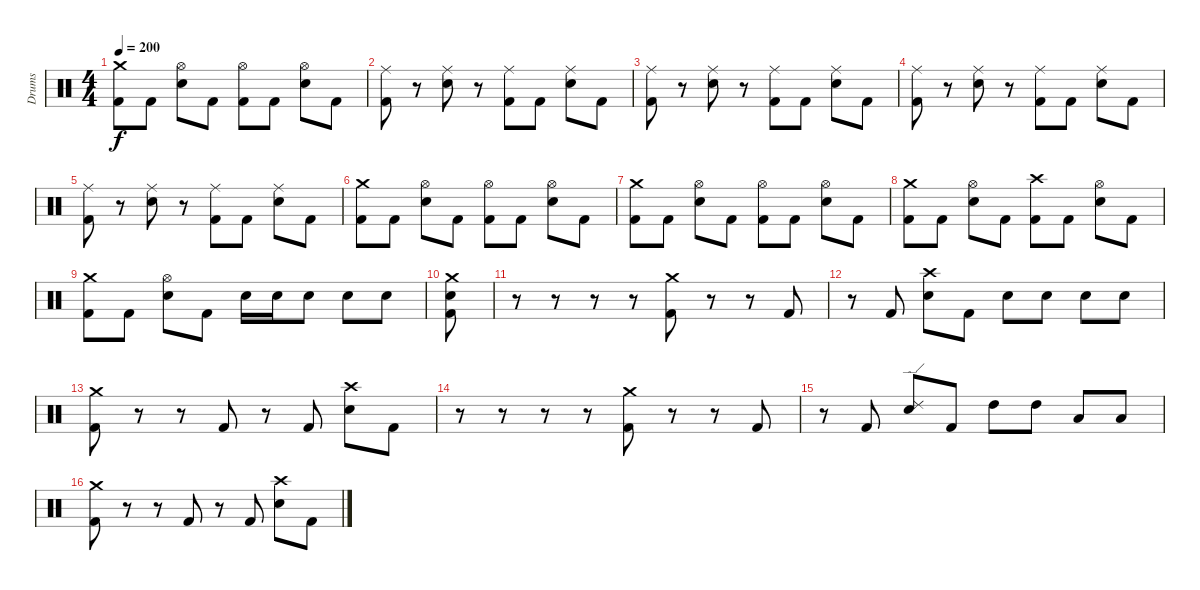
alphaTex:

\track ("Drums" "Drums") {instrument percussion}
\staff {score}
\articulation defaults
\ts (4 4)
\tempo 200
\clef neutral
\ks c
("Crash medium (hit)" "Kick (hit) 2").8{dy f} "Kick (hit) 2".8 ("Hi-Hat (open)" "Electric Snare (hit)").8 "Kick (hit) 2".8 ("Hi-Hat (open)" "Kick (hit) 2").8 "Kick (hit) 2".8 ("Hi-Hat (open)" "Electric Snare (hit)").8 "Kick (hit) 2".8 |
("Ride (middle)" "Kick (hit) 2").8 r.8 ("Ride (middle)" "Electric Snare (hit)").8 r.8 ("Ride (middle)" "Kick (hit) 2").8 "Kick (hit) 2".8 ("Ride (middle)" "Electric Snare (hit)").8 "Kick (hit) 2".8 |
("Ride (middle)" "Kick (hit) 2").8 r.8 ("Ride (middle)" "Electric Snare (hit)").8 r.8 ("Ride (middle)" "Kick (hit) 2").8 "Kick (hit) 2".8 ("Ride (middle)" "Electric Snare (hit)").8 "Kick (hit) 2".8 |
("Ride (middle)" "Kick (hit) 2").8 r.8 ("Ride (middle)" "Electric Snare (hit)").8 r.8 ("Ride (middle)" "Kick (hit) 2").8 "Kick (hit) 2".8 ("Ride (middle)" "Electric Snare (hit)").8 "Kick (hit) 2".8 |
("Ride (middle)" "Kick (hit) 2").8 r.8 ("Ride (middle)" "Electric Snare (hit)").8 r.8 ("Ride (middle)" "Kick (hit) 2").8 "Kick (hit) 2".8 ("Ride (middle)" "Electric Snare (hit)").8 "Kick (hit) 2".8 |
("Crash medium (hit)" "Kick (hit) 2").8 "Kick (hit) 2".8 ("Hi-Hat (open)" "Electric Snare (hit)").8 "Kick (hit) 2".8 ("Hi-Hat (open)" "Kick (hit) 2").8 "Kick (hit) 2".8 ("Hi-Hat (open)" "Electric Snare (hit)").8 "Kick (hit) 2".8 |
("Crash medium (hit)" "Kick (hit) 2").8 "Kick (hit) 2".8 ("Hi-Hat (open)" "Electric Snare (hit)").8 "Kick (hit) 2".8 ("Hi-Hat (open)" "Kick (hit) 2").8 "Kick (hit) 2".8 ("Hi-Hat (open)" "Electric Snare (hit)").8 "Kick (hit) 2".8 |
("Crash medium (hit)" "Kick (hit) 2").8 "Kick (hit) 2".8 ("Hi-Hat (open)" "Electric Snare (hit)").8 "Kick (hit) 2".8 ("Crash high (hit)" "Kick (hit) 2").8 "Kick (hit) 2".8 ("Hi-Hat (open)" "Electric Snare (hit)").8 "Kick (hit) 2".8 |
("Crash medium (hit)" "Kick (hit) 2").8 "Kick (hit) 2".8 ("Hi-Hat (open)" "Electric Snare (hit)").8 "Kick (hit) 2".8 "Electric Snare (hit)".16 "Electric Snare (hit)".16 "Electric Snare (hit)".8 "Electric Snare (hit)".8 "Electric Snare (hit)".8 |
("Crash medium (hit)" "Electric Snare (hit)" "Kick (hit) 2").8 |
r.8 r.8 r.8 r.8 ("Crash medium (hit)" "Kick (hit) 2").8 r.8 r.8 "Kick (hit) 2".8 |
r.8 "Kick (hit) 2".8 ("Crash high (hit)" "Electric Snare (hit)").8 "Kick (hit) 2".8 "Electric Snare (hit)".8 "Electric Snare (hit)".8 "Electric Snare (hit)".8 "Electric Snare (hit)".8 |
("Crash medium (hit)" "Kick (hit) 2").8 r.8 r.8 "Kick (hit) 2".8 r.8 "Kick (hit) 2".8 ("Crash high (hit)" "Electric Snare (hit)").8 "Kick (hit) 2".8 |
r.8 r.8 r.8 r.8 ("Crash medium (hit)" "Kick (hit) 2").8 r.8 r.8 "Kick (hit) 2".8 |
r.8 "Kick (hit) 2".8 ("Ride (edge) 2" "Electric Snare (hit)").8 "Kick (hit) 2".8 "High Tom (hit)".8 "High Tom (hit)".8 "Low Tom (hit)".8 "Low Tom (hit)".8 |
("Crash medium (hit)" "Kick (hit) 2").8 r.8 r.8 "Kick (hit) 2".8 r.8 "Kick (hit) 2".8 ("Crash high (hit)" "Electric Snare (hit)").8 "Kick (hit) 2".8
